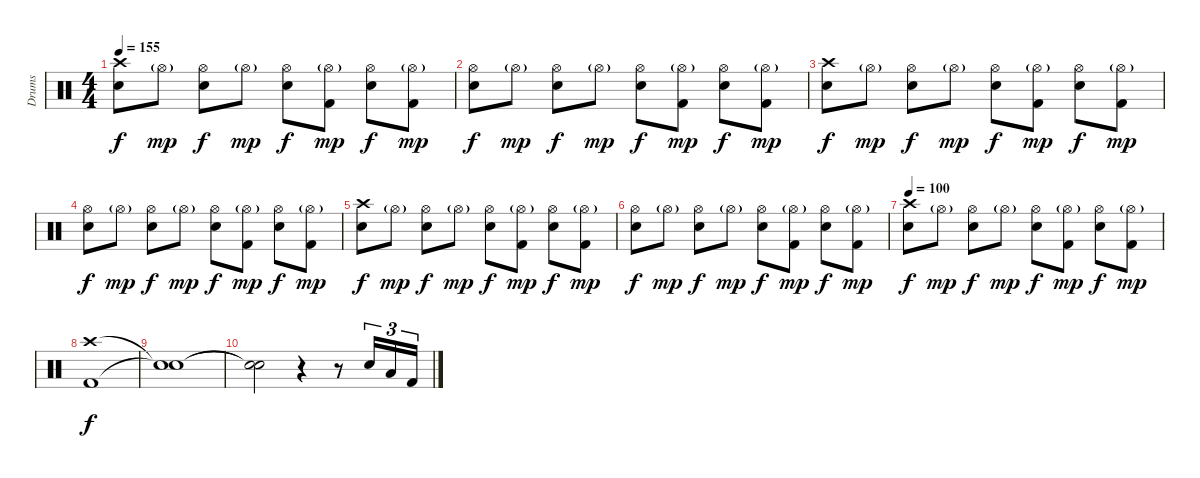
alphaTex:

\track ("Drums" "Drums") {instrument percussion}
\staff {score}
\articulation defaults
\ts (4 4)
\tempo 155
\clef neutral
\ks c
("Crash high (hit)" "Electric Snare (hit)").8{dy f} "Hi-Hat (open)"{g}.8{dy mp} ("Hi-Hat (open)" "Electric Snare (hit)").8{dy f} "Hi-Hat (open)"{g}.8{dy mp} ("Hi-Hat (open)" "Electric Snare (hit)").8{dy f} ("Hi-Hat (open)"{g} "Kick (hit) 2").8{dy mp} ("Hi-Hat (open)" "Electric Snare (hit)").8{dy f} ("Hi-Hat (open)"{g} "Kick (hit) 2").8{dy mp} |
("Hi-Hat (open)" "Electric Snare (hit)").8{dy f} "Hi-Hat (open)"{g}.8{dy mp} ("Hi-Hat (open)" "Electric Snare (hit)").8{dy f} "Hi-Hat (open)"{g}.8{dy mp} ("Hi-Hat (open)" "Electric Snare (hit)").8{dy f} ("Hi-Hat (open)"{g} "Kick (hit) 2").8{dy mp} ("Hi-Hat (open)" "Electric Snare (hit)").8{dy f} ("Hi-Hat (open)"{g} "Kick (hit) 2").8{dy mp} |
("Crash high (hit)" "Electric Snare (hit)").8{dy f} "Hi-Hat (open)"{g}.8{dy mp} ("Hi-Hat (open)" "Electric Snare (hit)").8{dy f} "Hi-Hat (open)"{g}.8{dy mp} ("Hi-Hat (open)" "Electric Snare (hit)").8{dy f} ("Hi-Hat (open)"{g} "Kick (hit) 2").8{dy mp} ("Hi-Hat (open)" "Electric Snare (hit)").8{dy f} ("Hi-Hat (open)"{g} "Kick (hit) 2").8{dy mp} |
("Hi-Hat (open)" "Electric Snare (hit)").8{dy f} "Hi-Hat (open)"{g}.8{dy mp} ("Hi-Hat (open)" "Electric Snare (hit)").8{dy f} "Hi-Hat (open)"{g}.8{dy mp} ("Hi-Hat (open)" "Electric Snare (hit)").8{dy f} ("Hi-Hat (open)"{g} "Kick (hit) 2").8{dy mp} ("Hi-Hat (open)" "Electric Snare (hit)").8{dy f} ("Hi-Hat (open)"{g} "Kick (hit) 2").8{dy mp} |
("Crash high (hit)" "Electric Snare (hit)").8{dy f} "Hi-Hat (open)"{g}.8{dy mp} ("Hi-Hat (open)" "Electric Snare (hit)").8{dy f} "Hi-Hat (open)"{g}.8{dy mp} ("Hi-Hat (open)" "Electric Snare (hit)").8{dy f} ("Hi-Hat (open)"{g} "Kick (hit) 2").8{dy mp} ("Hi-Hat (open)" "Electric Snare (hit)").8{dy f} ("Hi-Hat (open)"{g} "Kick (hit) 2").8{dy mp} |
("Hi-Hat (open)" "Electric Snare (hit)").8{dy f} "Hi-Hat (open)"{g}.8{dy mp} ("Hi-Hat (open)" "Electric Snare (hit)").8{dy f} "Hi-Hat (open)"{g}.8{dy mp} ("Hi-Hat (open)" "Electric Snare (hit)").8{dy f} ("Hi-Hat (open)"{g} "Kick (hit) 2").8{dy mp} ("Hi-Hat (open)" "Electric Snare (hit)").8{dy f} ("Hi-Hat (open)"{g} "Kick (hit) 2").8{dy mp} |
\tempo 100
("Crash high (hit)" "Electric Snare (hit)").8{dy f} "Hi-Hat (open)"{g}.8{dy mp} ("Hi-Hat (open)" "Electric Snare (hit)").8{dy f} "Hi-Hat (open)"{g}.8{dy mp} ("Hi-Hat (open)" "Electric Snare (hit)").8{dy f} ("Hi-Hat (open)"{g} "Kick (hit) 2").8{dy mp} ("Hi-Hat (open)" "Electric Snare (hit)").8{dy f} ("Hi-Hat (open)"{g} "Kick (hit) 2").8{dy mp} |
("Crash high (hit)" "Kick (hit) 2").1{dy f} |
("Snare (hit)"{t} "Snare (hit)"{t}).1 |
("Snare (hit)"{t} "Snare (hit)"{t}).2 r.4 r.8 "Electric Snare (hit)".16{tu (3 2)} "Low Floor Tom (hit)".16{tu (3 2)} "Kick (hit) 2".16{tu (3 2)}
